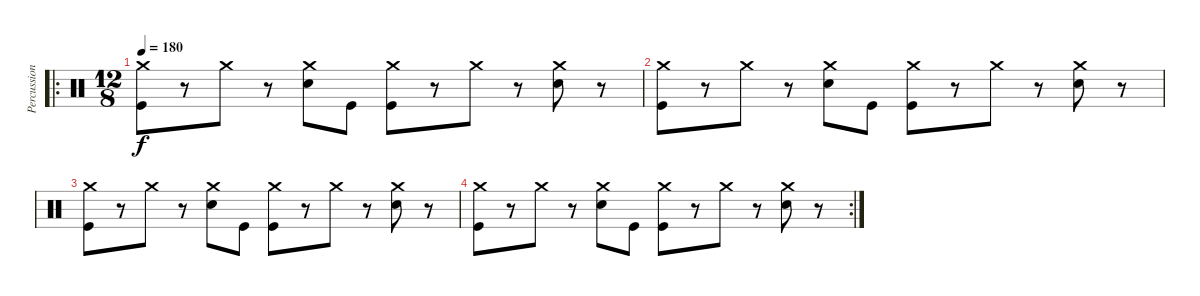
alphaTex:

\track ("Percussion" "Percussion") {instrument percussion}
\staff {score}
\articulation defaults
\ro
\ts (12 8)
\tempo 180
\clef neutral
\ks c
("Crash medium (hit)" "Kick (hit)").8{dy f} r.8 "Crash medium (hit)".8 r.8 ("Crash medium (hit)" "Snare (hit) 2").8 "Kick (hit)".8 ("Crash medium (hit)" "Kick (hit)").8 r.8 "Crash medium (hit)".8 r.8 ("Crash medium (hit)" "Snare (hit) 2").8 r.8 |
("Crash medium (hit)" "Kick (hit)").8 r.8 "Crash medium (hit)".8 r.8 ("Crash medium (hit)" "Snare (hit) 2").8 "Kick (hit)".8 ("Crash medium (hit)" "Kick (hit)").8 r.8 "Crash medium (hit)".8 r.8 ("Crash medium (hit)" "Snare (hit) 2").8 r.8 |
("Crash medium (hit)" "Kick (hit)").8 r.8 "Crash medium (hit)".8 r.8 ("Crash medium (hit)" "Snare (hit) 2").8 "Kick (hit)".8 ("Crash medium (hit)" "Kick (hit)").8 r.8 "Crash medium (hit)".8 r.8 ("Crash medium (hit)" "Snare (hit) 2").8 r.8 |
\rc 2
("Crash medium (hit)" "Kick (hit)").8 r.8 "Crash medium (hit)".8 r.8 ("Crash medium (hit)" "Snare (hit) 2").8 "Kick (hit)".8 ("Crash medium (hit)" "Kick (hit)").8 r.8 "Crash medium (hit)".8 r.8 ("Crash medium (hit)" "Snare (hit) 2").8 r.8
